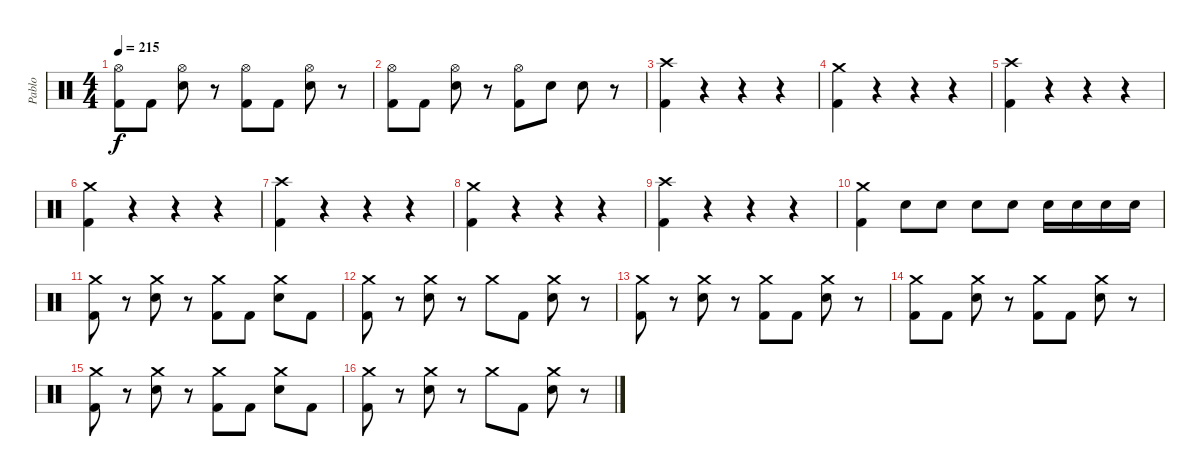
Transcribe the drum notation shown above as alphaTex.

\track ("Pablo" "Pablo") {instrument percussion}
\staff {score}
\articulation defaults
\ts (4 4)
\tempo 215
\clef neutral
\ks c
("Hi-Hat (open)" "Kick (hit) 2").8{dy f} "Kick (hit) 2".8 ("Hi-Hat (open)" "Electric Snare (hit)").8 r.8 ("Hi-Hat (open)" "Kick (hit) 2").8 "Kick (hit) 2".8 ("Hi-Hat (open)" "Electric Snare (hit)").8 r.8 |
("Hi-Hat (open)" "Kick (hit) 2").8 "Kick (hit) 2".8 ("Hi-Hat (open)" "Electric Snare (hit)").8 r.8 ("Hi-Hat (open)" "Kick (hit) 2").8 "Electric Snare (hit)".8 "Electric Snare (hit)".8 r.8 |
("Crash high (hit)" "Kick (hit) 2").4 r.4 r.4 r.4 |
("Crash medium (hit)" "Kick (hit) 2").4 r.4 r.4 r.4 |
("Crash high (hit)" "Kick (hit) 2").4 r.4 r.4 r.4 |
("Crash medium (hit)" "Kick (hit) 2").4 r.4 r.4 r.4 |
("Crash high (hit)" "Kick (hit) 2").4 r.4 r.4 r.4 |
("Crash medium (hit)" "Kick (hit) 2").4 r.4 r.4 r.4 |
("Crash high (hit)" "Kick (hit) 2").4 r.4 r.4 r.4 |
("Crash medium (hit)" "Kick (hit) 2").4 "Electric Snare (hit)".8 "Electric Snare (hit)".8 "Electric Snare (hit)".8 "Electric Snare (hit)".8 "Electric Snare (hit)".16 "Electric Snare (hit)".16 "Electric Snare (hit)".16 "Electric Snare (hit)".16 |
("Crash medium (hit)" "Kick (hit) 2").8 r.8 ("Crash medium (hit)" "Electric Snare (hit)").8 r.8 ("Crash medium (hit)" "Kick (hit) 2").8 "Kick (hit) 2".8 ("Crash medium (hit)" "Electric Snare (hit)").8 "Kick (hit) 2".8 |
("Crash medium (hit)" "Kick (hit) 2").8 r.8 ("Crash medium (hit)" "Electric Snare (hit)").8 r.8 "Crash medium (hit)".8 "Kick (hit) 2".8 ("Crash medium (hit)" "Electric Snare (hit)").8 r.8 |
("Crash medium (hit)" "Kick (hit) 2").8 r.8 ("Crash medium (hit)" "Electric Snare (hit)").8 r.8 ("Crash medium (hit)" "Kick (hit) 2").8 "Kick (hit) 2".8 ("Crash medium (hit)" "Electric Snare (hit)").8 r.8 |
("Crash medium (hit)" "Kick (hit) 2").8 "Kick (hit) 2".8 ("Crash medium (hit)" "Electric Snare (hit)").8 r.8 ("Crash medium (hit)" "Kick (hit) 2").8 "Kick (hit) 2".8 ("Crash medium (hit)" "Electric Snare (hit)").8 r.8 |
("Crash medium (hit)" "Kick (hit) 2").8 r.8 ("Crash medium (hit)" "Electric Snare (hit)").8 r.8 ("Crash medium (hit)" "Kick (hit) 2").8 "Kick (hit) 2".8 ("Crash medium (hit)" "Electric Snare (hit)").8 "Kick (hit) 2".8 |
("Crash medium (hit)" "Kick (hit) 2").8 r.8 ("Crash medium (hit)" "Electric Snare (hit)").8 r.8 "Crash medium (hit)".8 "Kick (hit) 2".8 ("Crash medium (hit)" "Electric Snare (hit)").8 r.8
